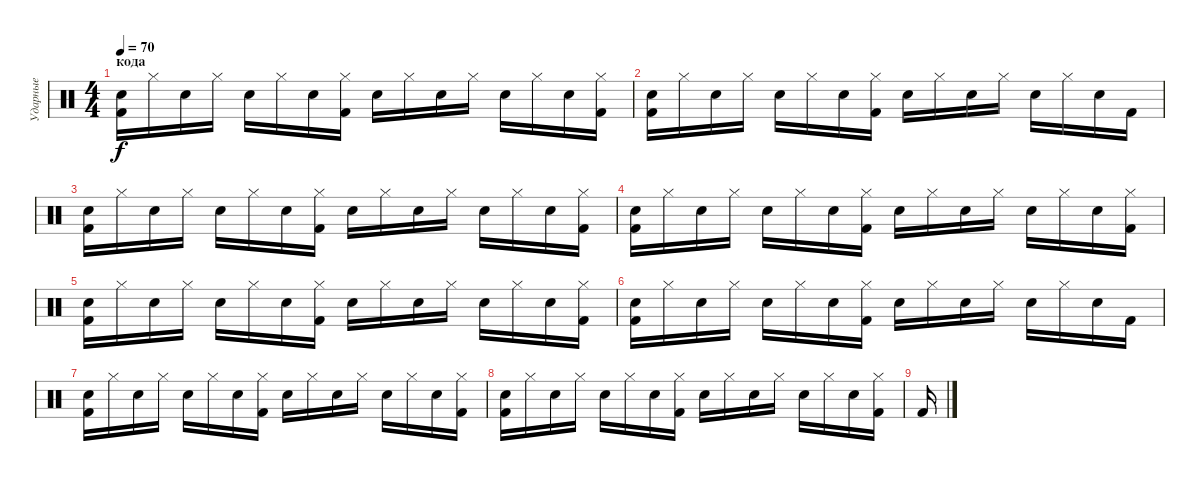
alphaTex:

\track ("Ударные" "Ударные") {instrument percussion}
\staff {score}
\articulation defaults
\ts (4 4)
\section ("" "кода")
\tempo 70
\clef neutral
\ks c
("Snare (hit) 2" "Kick (hit) 2").16{dy f} "Hi-Hat (closed)".16 "Snare (hit) 2".16 "Hi-Hat (closed)".16 "Snare (hit) 2".16 "Hi-Hat (closed)".16 "Snare (hit) 2".16 ("Hi-Hat (closed)" "Kick (hit) 2").16 "Snare (hit) 2".16 "Hi-Hat (closed)".16 "Snare (hit) 2".16 "Hi-Hat (closed)".16 "Snare (hit) 2".16 "Hi-Hat (closed)".16 "Snare (hit) 2".16 ("Hi-Hat (closed)" "Kick (hit) 2").16 |
("Snare (hit) 2" "Kick (hit) 2").16 "Hi-Hat (closed)".16 "Snare (hit) 2".16 "Hi-Hat (closed)".16 "Snare (hit) 2".16 "Hi-Hat (closed)".16 "Snare (hit) 2".16 ("Hi-Hat (closed)" "Kick (hit) 2").16 "Snare (hit) 2".16 "Hi-Hat (closed)".16 "Snare (hit) 2".16 "Hi-Hat (closed)".16 "Snare (hit) 2".16 "Hi-Hat (closed)".16 "Snare (hit) 2".16 "Kick (hit) 2".16 |
("Snare (hit) 2" "Kick (hit) 2").16 "Hi-Hat (closed)".16 "Snare (hit) 2".16 "Hi-Hat (closed)".16 "Snare (hit) 2".16 "Hi-Hat (closed)".16 "Snare (hit) 2".16 ("Hi-Hat (closed)" "Kick (hit) 2").16 "Snare (hit) 2".16 "Hi-Hat (closed)".16 "Snare (hit) 2".16 "Hi-Hat (closed)".16 "Snare (hit) 2".16 "Hi-Hat (closed)".16 "Snare (hit) 2".16 ("Hi-Hat (closed)" "Kick (hit) 2").16 |
("Snare (hit) 2" "Kick (hit) 2").16 "Hi-Hat (closed)".16 "Snare (hit) 2".16 "Hi-Hat (closed)".16 "Snare (hit) 2".16 "Hi-Hat (closed)".16 "Snare (hit) 2".16 ("Hi-Hat (closed)" "Kick (hit) 2").16 "Snare (hit) 2".16 "Hi-Hat (closed)".16 "Snare (hit) 2".16 "Hi-Hat (closed)".16 "Snare (hit) 2".16 "Hi-Hat (closed)".16 "Snare (hit) 2".16 ("Hi-Hat (closed)" "Kick (hit) 2").16 |
("Snare (hit) 2" "Kick (hit) 2").16 "Hi-Hat (closed)".16 "Snare (hit) 2".16 "Hi-Hat (closed)".16 "Snare (hit) 2".16 "Hi-Hat (closed)".16 "Snare (hit) 2".16 ("Hi-Hat (closed)" "Kick (hit) 2").16 "Snare (hit) 2".16 "Hi-Hat (closed)".16 "Snare (hit) 2".16 "Hi-Hat (closed)".16 "Snare (hit) 2".16 "Hi-Hat (closed)".16 "Snare (hit) 2".16 ("Hi-Hat (closed)" "Kick (hit) 2").16 |
("Snare (hit) 2" "Kick (hit) 2").16 "Hi-Hat (closed)".16 "Snare (hit) 2".16 "Hi-Hat (closed)".16 "Snare (hit) 2".16 "Hi-Hat (closed)".16 "Snare (hit) 2".16 ("Hi-Hat (closed)" "Kick (hit) 2").16 "Snare (hit) 2".16 "Hi-Hat (closed)".16 "Snare (hit) 2".16 "Hi-Hat (closed)".16 "Snare (hit) 2".16 "Hi-Hat (closed)".16 "Snare (hit) 2".16 "Kick (hit) 2".16 |
("Snare (hit) 2" "Kick (hit) 2").16 "Hi-Hat (closed)".16 "Snare (hit) 2".16 "Hi-Hat (closed)".16 "Snare (hit) 2".16 "Hi-Hat (closed)".16 "Snare (hit) 2".16 ("Hi-Hat (closed)" "Kick (hit) 2").16 "Snare (hit) 2".16 "Hi-Hat (closed)".16 "Snare (hit) 2".16 "Hi-Hat (closed)".16 "Snare (hit) 2".16 "Hi-Hat (closed)".16 "Snare (hit) 2".16 ("Hi-Hat (closed)" "Kick (hit) 2").16 |
("Snare (hit) 2" "Kick (hit) 2").16 "Hi-Hat (closed)".16 "Snare (hit) 2".16 "Hi-Hat (closed)".16 "Snare (hit) 2".16 "Hi-Hat (closed)".16 "Snare (hit) 2".16 ("Hi-Hat (closed)" "Kick (hit) 2").16 "Snare (hit) 2".16 "Hi-Hat (closed)".16 "Snare (hit) 2".16 "Hi-Hat (closed)".16 "Snare (hit) 2".16 "Hi-Hat (closed)".16 "Snare (hit) 2".16 ("Hi-Hat (closed)" "Kick (hit) 2").16 |
"Kick (hit) 2".16
